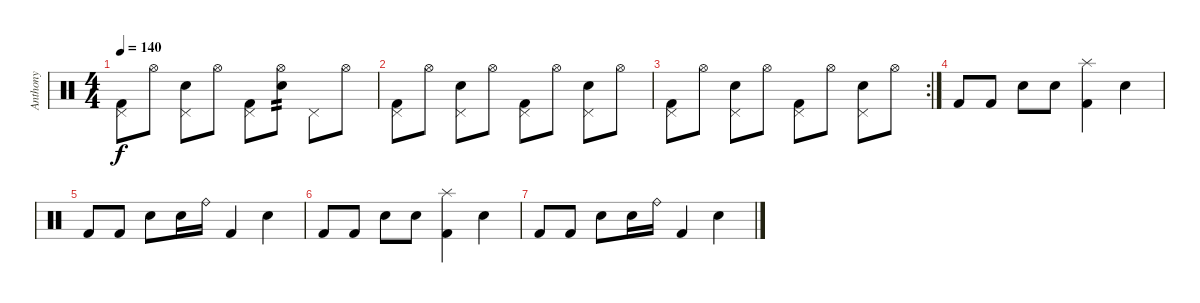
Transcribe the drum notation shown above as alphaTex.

\track ("Anthony" "Anthony") {instrument percussion}
\staff {score}
\articulation defaults
\ts (4 4)
\tempo 140
\clef neutral
\ks c
("Pedal Hi-Hat (hit)" "Kick (hit) 2").8{dy f} "Hi-Hat (open)".8 ("Pedal Hi-Hat (hit)" "Snare (hit) 2").8 "Hi-Hat (open)".8 ("Pedal Hi-Hat (hit)" "Kick (hit) 2").8 ("Hi-Hat (open)" "Snare (hit) 2").8{tp 2} "Pedal Hi-Hat (hit)".8 "Hi-Hat (open)".8 |
("Pedal Hi-Hat (hit)" "Kick (hit) 2").8 "Hi-Hat (open)".8 ("Pedal Hi-Hat (hit)" "Snare (hit) 2").8 "Hi-Hat (open)".8 ("Pedal Hi-Hat (hit)" "Kick (hit) 2").8 "Hi-Hat (open)".8 ("Pedal Hi-Hat (hit)" "Snare (hit) 2").8 "Hi-Hat (open)".8 |
\rc 2
("Pedal Hi-Hat (hit)" "Kick (hit) 2").8 "Hi-Hat (open)".8 ("Pedal Hi-Hat (hit)" "Snare (hit) 2").8 "Hi-Hat (open)".8 ("Pedal Hi-Hat (hit)" "Kick (hit) 2").8 "Hi-Hat (open)".8 ("Pedal Hi-Hat (hit)" "Snare (hit) 2").8 "Hi-Hat (open)".8 |
"Kick (hit) 2".8 "Kick (hit) 2".8 "Snare (hit) 2".8 "Snare (hit) 2".8 ("Splash (hit)" "Kick (hit) 2").4 "Snare (hit) 2".4 |
"Kick (hit) 2".8 "Kick (hit) 2".8 "Snare (hit) 2".8 "Snare (hit) 2".16 "Ride (bell)".16 "Kick (hit) 2".4 "Snare (hit) 2".4 |
"Kick (hit) 2".8 "Kick (hit) 2".8 "Snare (hit) 2".8 "Snare (hit) 2".8 ("Splash (hit)" "Kick (hit) 2").4 "Snare (hit) 2".4 |
"Kick (hit) 2".8 "Kick (hit) 2".8 "Snare (hit) 2".8 "Snare (hit) 2".16 "Ride (bell)".16 "Kick (hit) 2".4 "Snare (hit) 2".4
